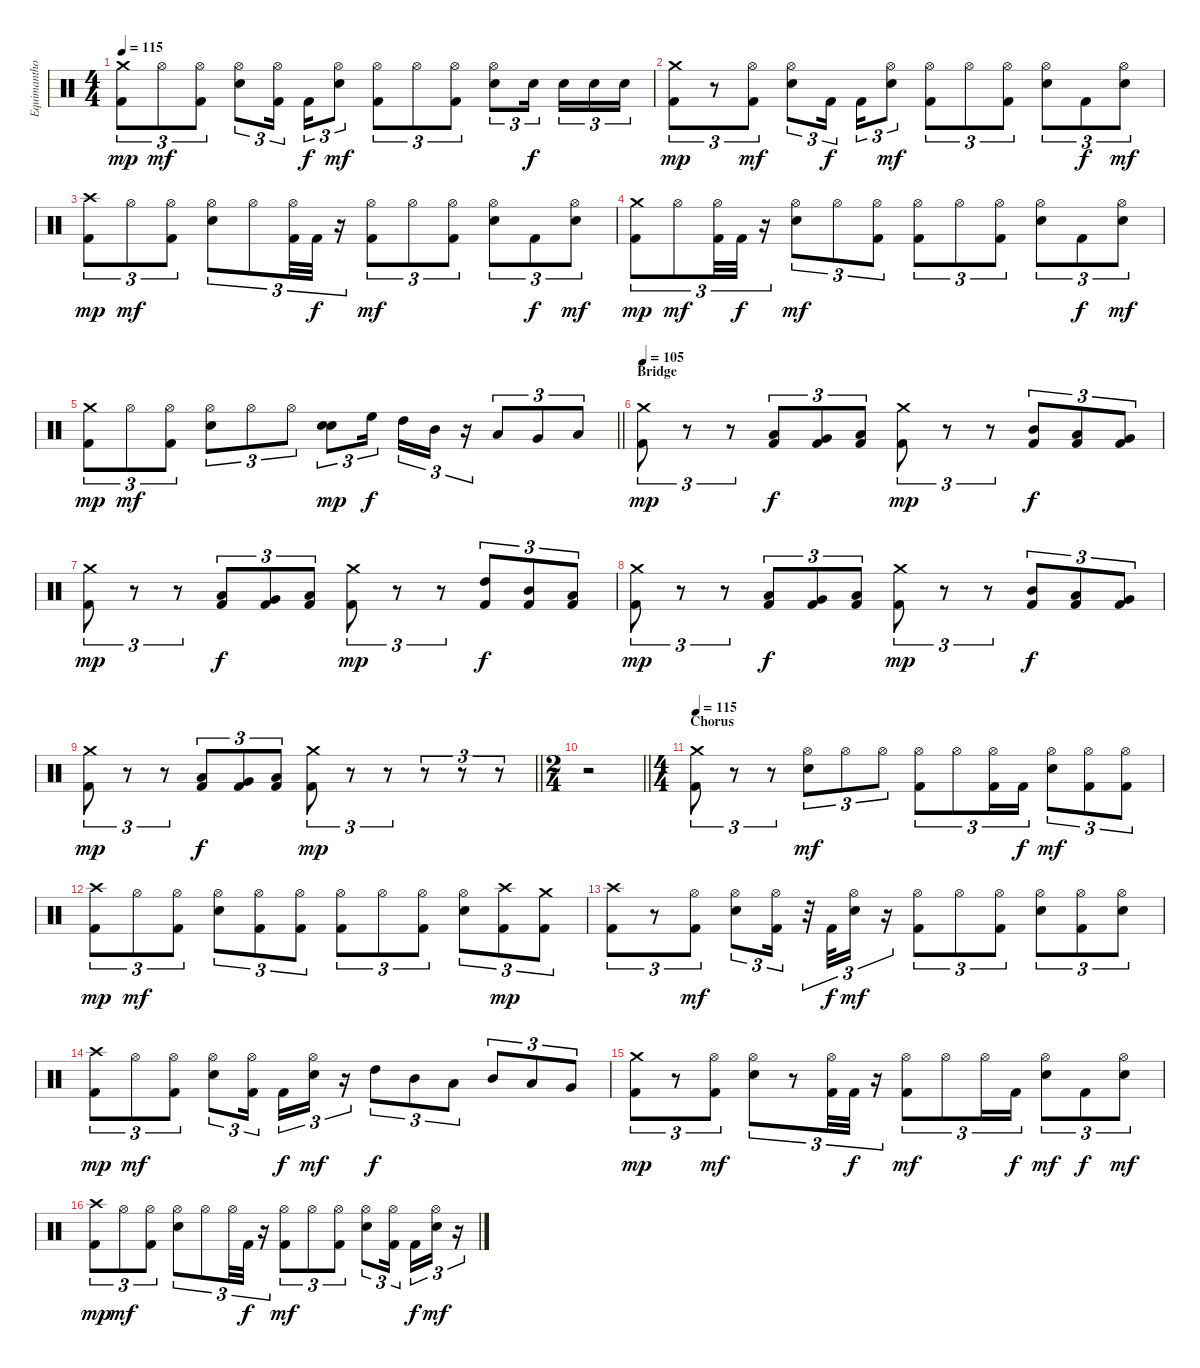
\track ("Equimanthorn" "Equimantho") {instrument percussion}
\staff {score}
\articulation defaults
\ts (4 4)
\tempo 115
\clef neutral
\ks c
("Crash medium (hit)" "Kick (hit) 2").8{tu (3 2) dy mp} "Hi-Hat (open)".8{tu (3 2) dy mf} ("Hi-Hat (open)" "Kick (hit) 2").8{tu (3 2)} ("Hi-Hat (open)" "Electric Snare (hit)").8{tu (3 2)} ("Hi-Hat (open)" "Kick (hit) 2").16{tu (3 2) beam splitsecondary} "Kick (hit) 2".16{tu (3 2) dy f} ("Hi-Hat (open)" "Electric Snare (hit)").8{tu (3 2) dy mf} ("Hi-Hat (open)" "Kick (hit) 2").8{tu (3 2)} "Hi-Hat (open)".8{tu (3 2)} ("Hi-Hat (open)" "Kick (hit) 2").8{tu (3 2)} ("Hi-Hat (open)" "Electric Snare (hit)").8{tu (3 2)} "Electric Snare (hit)".16{tu (3 2) dy f beam splitsecondary} "Electric Snare (hit)".16{tu (3 2)} "Electric Snare (hit)".16{tu (3 2)} "Electric Snare (hit)".16{tu (3 2)} |
("Crash medium (hit)" "Kick (hit) 2").8{tu (3 2) dy mp} r.8{tu (3 2)} ("Hi-Hat (open)" "Kick (hit) 2").8{tu (3 2) dy mf} ("Hi-Hat (open)" "Electric Snare (hit)").8{tu (3 2)} "Kick (hit) 2".16{tu (3 2) dy f beam splitsecondary} "Kick (hit) 2".16{tu (3 2)} ("Hi-Hat (open)" "Electric Snare (hit)").8{tu (3 2) dy mf} ("Hi-Hat (open)" "Kick (hit) 2").8{tu (3 2)} "Hi-Hat (open)".8{tu (3 2)} ("Hi-Hat (open)" "Kick (hit) 2").8{tu (3 2)} ("Hi-Hat (open)" "Electric Snare (hit)").8{tu (3 2)} "Kick (hit) 2".8{tu (3 2) dy f} ("Hi-Hat (open)" "Electric Snare (hit)").8{tu (3 2) dy mf} |
("Crash high (hit)" "Kick (hit) 2").8{tu (3 2) dy mp} "Hi-Hat (open)".8{tu (3 2) dy mf} ("Hi-Hat (open)" "Kick (hit) 2").8{tu (3 2)} ("Hi-Hat (open)" "Electric Snare (hit)").8{tu (3 2)} "Hi-Hat (open)".8{tu (3 2)} ("Hi-Hat (open)" "Kick (hit) 2").32{tu (3 2)} "Kick (hit) 2".32{tu (3 2) dy f} r.16{tu (3 2)} ("Hi-Hat (open)" "Kick (hit) 2").8{tu (3 2) dy mf} "Hi-Hat (open)".8{tu (3 2)} ("Hi-Hat (open)" "Kick (hit) 2").8{tu (3 2)} ("Hi-Hat (open)" "Electric Snare (hit)").8{tu (3 2)} "Kick (hit) 2".8{tu (3 2) dy f} ("Hi-Hat (open)" "Electric Snare (hit)").8{tu (3 2) dy mf} |
("Crash medium (hit)" "Kick (hit) 2").8{tu (3 2) dy mp} "Hi-Hat (open)".8{tu (3 2) dy mf} ("Hi-Hat (open)" "Kick (hit) 2").32{tu (3 2)} "Kick (hit) 2".32{tu (3 2) dy f} r.16{tu (3 2)} ("Hi-Hat (open)" "Electric Snare (hit)").8{tu (3 2) dy mf} "Hi-Hat (open)".8{tu (3 2)} ("Hi-Hat (open)" "Kick (hit) 2").8{tu (3 2)} ("Hi-Hat (open)" "Kick (hit) 2").8{tu (3 2)} "Hi-Hat (open)".8{tu (3 2)} ("Hi-Hat (open)" "Kick (hit) 2").8{tu (3 2)} ("Hi-Hat (open)" "Electric Snare (hit)").8{tu (3 2)} "Kick (hit) 2".8{tu (3 2) dy f} ("Hi-Hat (open)" "Electric Snare (hit)").8{tu (3 2) dy mf} |
\barLineRight lightlight
("Crash medium (hit)" "Kick (hit) 2").8{tu (3 2) dy mp} "Hi-Hat (open)".8{tu (3 2) dy mf} ("Hi-Hat (open)" "Kick (hit) 2").8{tu (3 2)} ("Hi-Hat (open)" "Electric Snare (hit)").8{tu (3 2)} "Hi-Hat (open)".8{tu (3 2)} "Hi-Hat (open)".8{tu (3 2)} ("Electric Snare (hit)" "Electric Snare (hit)").8{tu (3 2) dy mp} "High Floor Tom (hit)".16{tu (3 2) dy f beam splitsecondary} "High Tom (hit)".16{tu (3 2)} "Mid Tom (hit)".16{tu (3 2)} r.16{tu (3 2)} "Low Tom (hit)".8{tu (3 2)} "Very Low Tom (hit)".8{tu (3 2)} "Low Floor Tom (hit)".8{tu (3 2)} |
\section ("" "Bridge")
\tempo 105
("Crash medium (hit)" "Kick (hit) 2").8{tu (3 2) dy mp} r.8{tu (3 2)} r.8{tu (3 2)} ("Low Tom (hit)" "Kick (hit) 2").8{tu (3 2) dy f} ("Very Low Tom (hit)" "Kick (hit) 2").8{tu (3 2)} ("Low Floor Tom (hit)" "Kick (hit) 2").8{tu (3 2)} ("Crash medium (hit)" "Kick (hit) 2").8{tu (3 2) dy mp} r.8{tu (3 2)} r.8{tu (3 2)} ("Mid Tom (hit)" "Kick (hit) 2").8{tu (3 2) dy f} ("Low Tom (hit)" "Kick (hit) 2").8{tu (3 2)} ("Very Low Tom (hit)" "Kick (hit) 2").8{tu (3 2)} |
("Crash medium (hit)" "Kick (hit) 2").8{tu (3 2) dy mp} r.8{tu (3 2)} r.8{tu (3 2)} ("Low Tom (hit)" "Kick (hit) 2").8{tu (3 2) dy f} ("Very Low Tom (hit)" "Kick (hit) 2").8{tu (3 2)} ("Low Floor Tom (hit)" "Kick (hit) 2").8{tu (3 2)} ("Crash medium (hit)" "Kick (hit) 2").8{tu (3 2) dy mp} r.8{tu (3 2)} r.8{tu (3 2)} ("High Tom (hit)" "Kick (hit) 2").8{tu (3 2) dy f} ("Mid Tom (hit)" "Kick (hit) 2").8{tu (3 2)} ("Low Tom (hit)" "Kick (hit) 2").8{tu (3 2)} |
("Crash medium (hit)" "Kick (hit) 2").8{tu (3 2) dy mp} r.8{tu (3 2)} r.8{tu (3 2)} ("Low Tom (hit)" "Kick (hit) 2").8{tu (3 2) dy f} ("Very Low Tom (hit)" "Kick (hit) 2").8{tu (3 2)} ("Low Floor Tom (hit)" "Kick (hit) 2").8{tu (3 2)} ("Crash medium (hit)" "Kick (hit) 2").8{tu (3 2) dy mp} r.8{tu (3 2)} r.8{tu (3 2)} ("Mid Tom (hit)" "Kick (hit) 2").8{tu (3 2) dy f} ("Low Tom (hit)" "Kick (hit) 2").8{tu (3 2)} ("Very Low Tom (hit)" "Kick (hit) 2").8{tu (3 2)} |
\barLineRight lightlight
("Crash medium (hit)" "Kick (hit) 2").8{tu (3 2) dy mp} r.8{tu (3 2)} r.8{tu (3 2)} ("Low Tom (hit)" "Kick (hit) 2").8{tu (3 2) dy f} ("Very Low Tom (hit)" "Kick (hit) 2").8{tu (3 2)} ("Low Floor Tom (hit)" "Kick (hit) 2").8{tu (3 2)} ("Crash medium (hit)" "Kick (hit) 2").8{tu (3 2) dy mp} r.8{tu (3 2)} r.8{tu (3 2)} r.8{tu (3 2)} r.8{tu (3 2)} r.8{tu (3 2)} |
\ts (2 4)
\barLineRight lightlight
r.2 |
\ts (4 4)
\section ("" "Chorus")
\tempo 115
("Crash medium (hit)" "Kick (hit) 2").8{tu (3 2)} r.8{tu (3 2)} r.8{tu (3 2)} ("Hi-Hat (open)" "Electric Snare (hit)").8{tu (3 2) dy mf} "Hi-Hat (open)".8{tu (3 2)} "Hi-Hat (open)".8{tu (3 2)} ("Hi-Hat (open)" "Kick (hit) 2").8{tu (3 2)} "Hi-Hat (open)".8{tu (3 2)} ("Hi-Hat (open)" "Kick (hit) 2").16{tu (3 2)} "Kick (hit) 2".16{tu (3 2) dy f} ("Hi-Hat (open)" "Electric Snare (hit)").8{tu (3 2) dy mf} ("Hi-Hat (open)" "Kick (hit) 2").8{tu (3 2)} ("Hi-Hat (open)" "Kick (hit) 2").8{tu (3 2)} |
("Crash high (hit)" "Kick (hit) 2").8{tu (3 2) dy mp} "Hi-Hat (open)".8{tu (3 2) dy mf} ("Hi-Hat (open)" "Kick (hit) 2").8{tu (3 2)} ("Hi-Hat (open)" "Electric Snare (hit)").8{tu (3 2)} ("Hi-Hat (open)" "Kick (hit) 2").8{tu (3 2)} ("Hi-Hat (open)" "Kick (hit) 2").8{tu (3 2)} ("Hi-Hat (open)" "Kick (hit) 2").8{tu (3 2)} "Hi-Hat (open)".8{tu (3 2)} ("Hi-Hat (open)" "Kick (hit) 2").8{tu (3 2)} ("Hi-Hat (open)" "Electric Snare (hit)").8{tu (3 2)} ("Crash high (hit)" "Kick (hit) 2").8{tu (3 2) dy mp} ("Crash medium (hit)" "Kick (hit) 2").8{tu (3 2)} |
("Crash high (hit)" "Kick (hit) 2").8{tu (3 2)} r.8{tu (3 2)} ("Hi-Hat (open)" "Kick (hit) 2").8{tu (3 2) dy mf} ("Hi-Hat (open)" "Electric Snare (hit)").8{tu (3 2)} ("Hi-Hat (open)" "Kick (hit) 2").16{tu (3 2)} r.32{tu (3 2)} "Kick (hit) 2".32{tu (3 2) dy f} ("Hi-Hat (open)" "Electric Snare (hit)").16{tu (3 2) dy mf} r.16{tu (3 2)} ("Hi-Hat (open)" "Kick (hit) 2").8{tu (3 2)} "Hi-Hat (open)".8{tu (3 2)} ("Hi-Hat (open)" "Kick (hit) 2").8{tu (3 2)} ("Hi-Hat (open)" "Electric Snare (hit)").8{tu (3 2)} ("Hi-Hat (open)" "Kick (hit) 2").8{tu (3 2)} ("Hi-Hat (open)" "Electric Snare (hit)").8{tu (3 2)} |
("Crash high (hit)" "Kick (hit) 2").8{tu (3 2) dy mp} "Hi-Hat (open)".8{tu (3 2) dy mf} ("Hi-Hat (open)" "Kick (hit) 2").8{tu (3 2)} ("Hi-Hat (open)" "Electric Snare (hit)").8{tu (3 2)} ("Hi-Hat (open)" "Kick (hit) 2").16{tu (3 2) beam splitsecondary} "Kick (hit) 2".16{tu (3 2) dy f} ("Hi-Hat (open)" "Electric Snare (hit)").16{tu (3 2) dy mf} r.16{tu (3 2)} "High Tom (hit)".8{tu (3 2) dy f} "Mid Tom (hit)".8{tu (3 2)} "Low Tom (hit)".8{tu (3 2)} "Mid Tom (hit)".8{tu (3 2)} "Low Tom (hit)".8{tu (3 2)} "Very Low Tom (hit)".8{tu (3 2)} |
("Crash medium (hit)" "Kick (hit) 2").8{tu (3 2) dy mp} r.8{tu (3 2)} ("Hi-Hat (open)" "Kick (hit) 2").8{tu (3 2) dy mf} ("Hi-Hat (open)" "Electric Snare (hit)").8{tu (3 2)} r.8{tu (3 2)} ("Hi-Hat (open)" "Kick (hit) 2").32{tu (3 2)} "Kick (hit) 2".32{tu (3 2) dy f} r.16{tu (3 2)} ("Hi-Hat (open)" "Kick (hit) 2").8{tu (3 2) dy mf} "Hi-Hat (open)".8{tu (3 2)} "Hi-Hat (open)".16{tu (3 2)} "Kick (hit) 2".16{tu (3 2) dy f} ("Hi-Hat (open)" "Electric Snare (hit)").8{tu (3 2) dy mf} "Kick (hit) 2".8{tu (3 2) dy f} ("Hi-Hat (open)" "Electric Snare (hit)").8{tu (3 2) dy mf} |
("Crash high (hit)" "Kick (hit) 2").8{tu (3 2) dy mp} "Hi-Hat (open)".8{tu (3 2) dy mf} ("Hi-Hat (open)" "Kick (hit) 2").8{tu (3 2)} ("Hi-Hat (open)" "Electric Snare (hit)").8{tu (3 2)} "Hi-Hat (open)".8{tu (3 2)} "Hi-Hat (open)".32{tu (3 2)} "Kick (hit) 2".32{tu (3 2) dy f} r.16{tu (3 2)} ("Hi-Hat (open)" "Kick (hit) 2").8{tu (3 2) dy mf} "Hi-Hat (open)".8{tu (3 2)} ("Hi-Hat (open)" "Kick (hit) 2").8{tu (3 2)} ("Hi-Hat (open)" "Electric Snare (hit)").8{tu (3 2)} ("Hi-Hat (open)" "Kick (hit) 2").16{tu (3 2) beam splitsecondary} "Kick (hit) 2".16{tu (3 2) dy f} ("Hi-Hat (open)" "Electric Snare (hit)").16{tu (3 2) dy mf} r.16{tu (3 2)}
